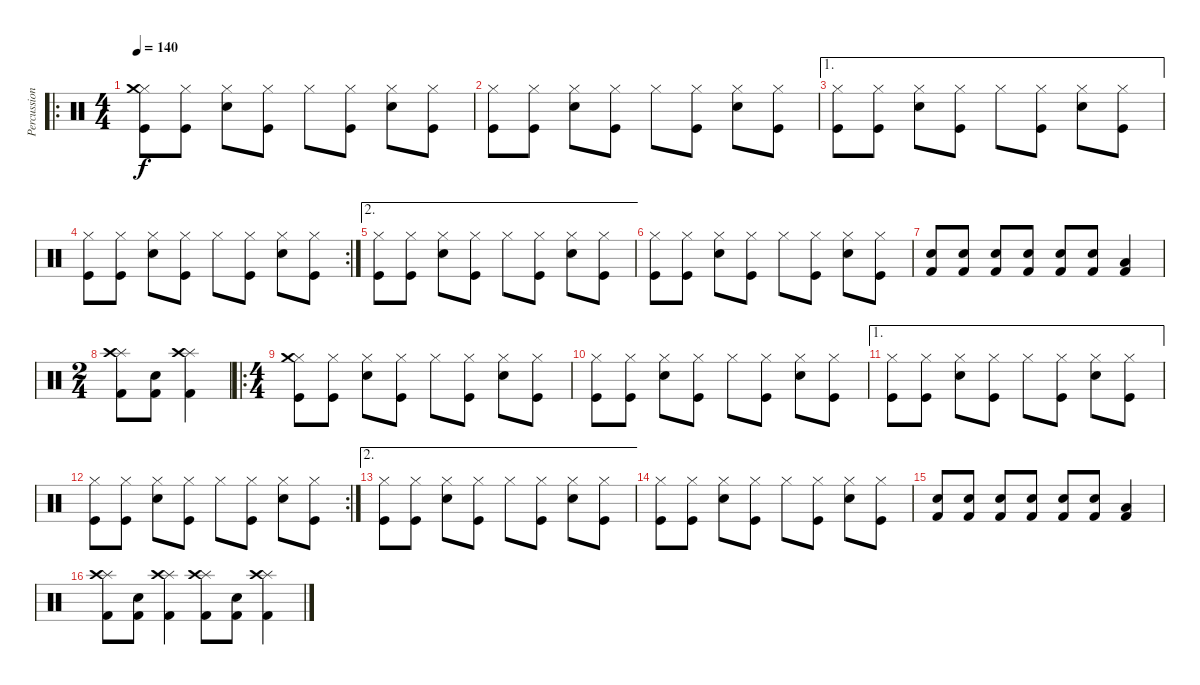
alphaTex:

\track ("Percussion" "Percussion") {instrument percussion}
\staff {score}
\articulation defaults
\ro
\ts (4 4)
\tempo 140
\clef neutral
\ks c
("Kick (hit)" "Hi-Hat (closed)" "Crash medium (hit)").8{dy f} ("Kick (hit)" "Hi-Hat (closed)").8 ("Electric Snare (hit)" "Hi-Hat (closed)").8 ("Kick (hit)" "Hi-Hat (closed)").8 "Hi-Hat (closed)".8 ("Kick (hit)" "Hi-Hat (closed)").8 ("Electric Snare (hit)" "Hi-Hat (closed)").8 ("Kick (hit)" "Hi-Hat (closed)").8 |
("Kick (hit)" "Hi-Hat (closed)").8 ("Kick (hit)" "Hi-Hat (closed)").8 ("Electric Snare (hit)" "Hi-Hat (closed)").8 ("Kick (hit)" "Hi-Hat (closed)").8 "Hi-Hat (closed)".8 ("Kick (hit)" "Hi-Hat (closed)").8 ("Electric Snare (hit)" "Hi-Hat (closed)").8 ("Kick (hit)" "Hi-Hat (closed)").8 |
\ae 1
("Kick (hit)" "Hi-Hat (closed)").8 ("Kick (hit)" "Hi-Hat (closed)").8 ("Electric Snare (hit)" "Hi-Hat (closed)").8 ("Kick (hit)" "Hi-Hat (closed)").8 "Hi-Hat (closed)".8 ("Kick (hit)" "Hi-Hat (closed)").8 ("Electric Snare (hit)" "Hi-Hat (closed)").8 ("Kick (hit)" "Hi-Hat (closed)").8 |
\rc 2
("Kick (hit)" "Hi-Hat (closed)").8 ("Kick (hit)" "Hi-Hat (closed)").8 ("Electric Snare (hit)" "Hi-Hat (closed)").8 ("Kick (hit)" "Hi-Hat (closed)").8 "Hi-Hat (closed)".8 ("Kick (hit)" "Hi-Hat (closed)").8 ("Electric Snare (hit)" "Hi-Hat (closed)").8 ("Kick (hit)" "Hi-Hat (closed)").8 |
\ae 2
("Kick (hit)" "Hi-Hat (closed)").8 ("Kick (hit)" "Hi-Hat (closed)").8 ("Electric Snare (hit)" "Hi-Hat (closed)").8 ("Kick (hit)" "Hi-Hat (closed)").8 "Hi-Hat (closed)".8 ("Kick (hit)" "Hi-Hat (closed)").8 ("Electric Snare (hit)" "Hi-Hat (closed)").8 ("Kick (hit)" "Hi-Hat (closed)").8 |
("Kick (hit)" "Hi-Hat (closed)").8 ("Kick (hit)" "Hi-Hat (closed)").8 ("Electric Snare (hit)" "Hi-Hat (closed)").8 ("Kick (hit)" "Hi-Hat (closed)").8 "Hi-Hat (closed)".8 ("Kick (hit)" "Hi-Hat (closed)").8 ("Electric Snare (hit)" "Hi-Hat (closed)").8 ("Kick (hit)" "Hi-Hat (closed)").8 |
("Snare (hit) 2" "Kick (hit) 2").8 ("Snare (hit) 2" "Kick (hit) 2").8 ("Snare (hit) 2" "Kick (hit) 2").8 ("Snare (hit) 2" "Kick (hit) 2").8 ("Snare (hit) 2" "Kick (hit) 2").8 ("Snare (hit) 2" "Kick (hit) 2").8 ("Low Tom (hit)" "Kick (hit) 2").4 |
\ts (2 4)
("Splash (hit)" "Crash high (hit)" "Kick (hit) 2").8 ("Snare (hit) 2" "Kick (hit) 2").8 ("Splash (hit)" "Crash high (hit)" "Kick (hit) 2").4 |
\ro
\ts (4 4)
("Kick (hit)" "Hi-Hat (closed)" "Crash medium (hit)").8 ("Kick (hit)" "Hi-Hat (closed)").8 ("Electric Snare (hit)" "Hi-Hat (closed)").8 ("Kick (hit)" "Hi-Hat (closed)").8 "Hi-Hat (closed)".8 ("Kick (hit)" "Hi-Hat (closed)").8 ("Electric Snare (hit)" "Hi-Hat (closed)").8 ("Kick (hit)" "Hi-Hat (closed)").8 |
("Kick (hit)" "Hi-Hat (closed)").8 ("Kick (hit)" "Hi-Hat (closed)").8 ("Electric Snare (hit)" "Hi-Hat (closed)").8 ("Kick (hit)" "Hi-Hat (closed)").8 "Hi-Hat (closed)".8 ("Kick (hit)" "Hi-Hat (closed)").8 ("Electric Snare (hit)" "Hi-Hat (closed)").8 ("Kick (hit)" "Hi-Hat (closed)").8 |
\ae 1
("Kick (hit)" "Hi-Hat (closed)").8 ("Kick (hit)" "Hi-Hat (closed)").8 ("Electric Snare (hit)" "Hi-Hat (closed)").8 ("Kick (hit)" "Hi-Hat (closed)").8 "Hi-Hat (closed)".8 ("Kick (hit)" "Hi-Hat (closed)").8 ("Electric Snare (hit)" "Hi-Hat (closed)").8 ("Kick (hit)" "Hi-Hat (closed)").8 |
\rc 2
("Kick (hit)" "Hi-Hat (closed)").8 ("Kick (hit)" "Hi-Hat (closed)").8 ("Electric Snare (hit)" "Hi-Hat (closed)").8 ("Kick (hit)" "Hi-Hat (closed)").8 "Hi-Hat (closed)".8 ("Kick (hit)" "Hi-Hat (closed)").8 ("Electric Snare (hit)" "Hi-Hat (closed)").8 ("Kick (hit)" "Hi-Hat (closed)").8 |
\ae 2
("Kick (hit)" "Hi-Hat (closed)").8 ("Kick (hit)" "Hi-Hat (closed)").8 ("Electric Snare (hit)" "Hi-Hat (closed)").8 ("Kick (hit)" "Hi-Hat (closed)").8 "Hi-Hat (closed)".8 ("Kick (hit)" "Hi-Hat (closed)").8 ("Electric Snare (hit)" "Hi-Hat (closed)").8 ("Kick (hit)" "Hi-Hat (closed)").8 |
("Kick (hit)" "Hi-Hat (closed)").8 ("Kick (hit)" "Hi-Hat (closed)").8 ("Electric Snare (hit)" "Hi-Hat (closed)").8 ("Kick (hit)" "Hi-Hat (closed)").8 "Hi-Hat (closed)".8 ("Kick (hit)" "Hi-Hat (closed)").8 ("Electric Snare (hit)" "Hi-Hat (closed)").8 ("Kick (hit)" "Hi-Hat (closed)").8 |
("Snare (hit) 2" "Kick (hit) 2").8 ("Snare (hit) 2" "Kick (hit) 2").8 ("Snare (hit) 2" "Kick (hit) 2").8 ("Snare (hit) 2" "Kick (hit) 2").8 ("Snare (hit) 2" "Kick (hit) 2").8 ("Snare (hit) 2" "Kick (hit) 2").8 ("Low Tom (hit)" "Kick (hit) 2").4 |
("Splash (hit)" "Crash high (hit)" "Kick (hit) 2").8 ("Snare (hit) 2" "Kick (hit) 2").8 ("Splash (hit)" "Crash high (hit)" "Kick (hit) 2").4 ("Splash (hit)" "Crash high (hit)" "Kick (hit) 2").8 ("Snare (hit) 2" "Kick (hit) 2").8 ("Splash (hit)" "Crash high (hit)" "Kick (hit) 2").4
